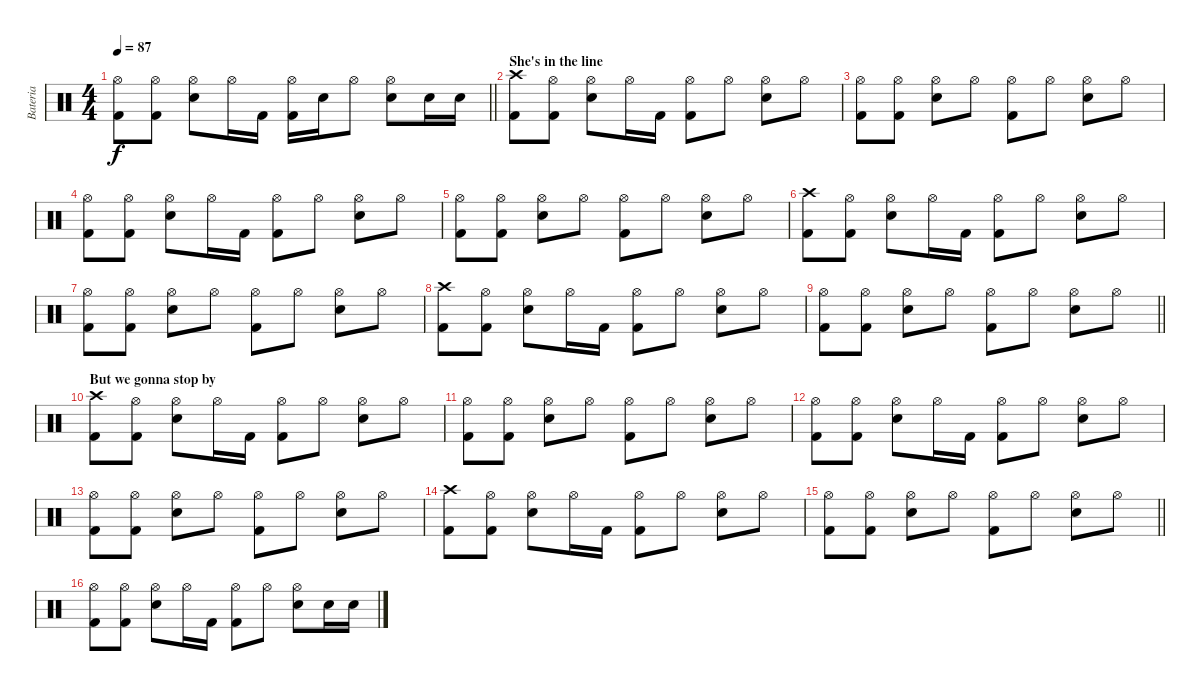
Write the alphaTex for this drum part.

\track ("Bateria" "Bateria") {instrument percussion}
\staff {score}
\articulation defaults
\ts (4 4)
\tempo 87
\clef neutral
\barLineRight lightlight
\ks c
("Hi-Hat (open)" "Kick (hit) 2").8{dy f} ("Hi-Hat (open)" "Kick (hit) 2").8 ("Hi-Hat (open)" "Snare (hit) 2").8 "Hi-Hat (open)".16 "Kick (hit) 2".16 ("Hi-Hat (open)" "Kick (hit) 2").16 "Snare (hit) 2".16 "Hi-Hat (open)".8 ("Hi-Hat (open)" "Snare (hit) 2").8 "Snare (hit) 2".16 "Snare (hit) 2".16 |
\section ("" "She's in the line")
("Crash high (hit)" "Kick (hit) 2").8 ("Hi-Hat (open)" "Kick (hit) 2").8 ("Hi-Hat (open)" "Snare (hit) 2").8 "Hi-Hat (open)".16 "Kick (hit) 2".16 ("Hi-Hat (open)" "Kick (hit) 2").8 "Hi-Hat (open)".8 ("Hi-Hat (open)" "Snare (hit) 2").8 "Hi-Hat (open)".8 |
("Hi-Hat (open)" "Kick (hit) 2").8 ("Hi-Hat (open)" "Kick (hit) 2").8 ("Hi-Hat (open)" "Snare (hit) 2").8 "Hi-Hat (open)".8 ("Hi-Hat (open)" "Kick (hit) 2").8 "Hi-Hat (open)".8 ("Hi-Hat (open)" "Snare (hit) 2").8 "Hi-Hat (open)".8 |
("Hi-Hat (open)" "Kick (hit) 2").8 ("Hi-Hat (open)" "Kick (hit) 2").8 ("Hi-Hat (open)" "Snare (hit) 2").8 "Hi-Hat (open)".16 "Kick (hit) 2".16 ("Hi-Hat (open)" "Kick (hit) 2").8 "Hi-Hat (open)".8 ("Hi-Hat (open)" "Snare (hit) 2").8 "Hi-Hat (open)".8 |
("Hi-Hat (open)" "Kick (hit) 2").8 ("Hi-Hat (open)" "Kick (hit) 2").8 ("Hi-Hat (open)" "Snare (hit) 2").8 "Hi-Hat (open)".8 ("Hi-Hat (open)" "Kick (hit) 2").8 "Hi-Hat (open)".8 ("Hi-Hat (open)" "Snare (hit) 2").8 "Hi-Hat (open)".8 |
("Crash high (hit)" "Kick (hit) 2").8 ("Hi-Hat (open)" "Kick (hit) 2").8 ("Hi-Hat (open)" "Snare (hit) 2").8 "Hi-Hat (open)".16 "Kick (hit) 2".16 ("Hi-Hat (open)" "Kick (hit) 2").8 "Hi-Hat (open)".8 ("Hi-Hat (open)" "Snare (hit) 2").8 "Hi-Hat (open)".8 |
("Hi-Hat (open)" "Kick (hit) 2").8 ("Hi-Hat (open)" "Kick (hit) 2").8 ("Hi-Hat (open)" "Snare (hit) 2").8 "Hi-Hat (open)".8 ("Hi-Hat (open)" "Kick (hit) 2").8 "Hi-Hat (open)".8 ("Hi-Hat (open)" "Snare (hit) 2").8 "Hi-Hat (open)".8 |
("Crash high (hit)" "Kick (hit) 2").8 ("Hi-Hat (open)" "Kick (hit) 2").8 ("Hi-Hat (open)" "Snare (hit) 2").8 "Hi-Hat (open)".16 "Kick (hit) 2".16 ("Hi-Hat (open)" "Kick (hit) 2").8 "Hi-Hat (open)".8 ("Hi-Hat (open)" "Snare (hit) 2").8 "Hi-Hat (open)".8 |
\barLineRight lightlight
("Hi-Hat (open)" "Kick (hit) 2").8 ("Hi-Hat (open)" "Kick (hit) 2").8 ("Hi-Hat (open)" "Snare (hit) 2").8 "Hi-Hat (open)".8 ("Hi-Hat (open)" "Kick (hit) 2").8 "Hi-Hat (open)".8 ("Hi-Hat (open)" "Snare (hit) 2").8 "Hi-Hat (open)".8 |
\section ("" "But we gonna stop by")
("Crash high (hit)" "Kick (hit) 2").8 ("Hi-Hat (open)" "Kick (hit) 2").8 ("Hi-Hat (open)" "Snare (hit) 2").8 "Hi-Hat (open)".16 "Kick (hit) 2".16 ("Hi-Hat (open)" "Kick (hit) 2").8 "Hi-Hat (open)".8 ("Hi-Hat (open)" "Snare (hit) 2").8 "Hi-Hat (open)".8 |
("Hi-Hat (open)" "Kick (hit) 2").8 ("Hi-Hat (open)" "Kick (hit) 2").8 ("Hi-Hat (open)" "Snare (hit) 2").8 "Hi-Hat (open)".8 ("Hi-Hat (open)" "Kick (hit) 2").8 "Hi-Hat (open)".8 ("Hi-Hat (open)" "Snare (hit) 2").8 "Hi-Hat (open)".8 |
("Hi-Hat (open)" "Kick (hit) 2").8 ("Hi-Hat (open)" "Kick (hit) 2").8 ("Hi-Hat (open)" "Snare (hit) 2").8 "Hi-Hat (open)".16 "Kick (hit) 2".16 ("Hi-Hat (open)" "Kick (hit) 2").8 "Hi-Hat (open)".8 ("Hi-Hat (open)" "Snare (hit) 2").8 "Hi-Hat (open)".8 |
("Hi-Hat (open)" "Kick (hit) 2").8 ("Hi-Hat (open)" "Kick (hit) 2").8 ("Hi-Hat (open)" "Snare (hit) 2").8 "Hi-Hat (open)".8 ("Hi-Hat (open)" "Kick (hit) 2").8 "Hi-Hat (open)".8 ("Hi-Hat (open)" "Snare (hit) 2").8 "Hi-Hat (open)".8 |
("Crash high (hit)" "Kick (hit) 2").8 ("Hi-Hat (open)" "Kick (hit) 2").8 ("Hi-Hat (open)" "Snare (hit) 2").8 "Hi-Hat (open)".16 "Kick (hit) 2".16 ("Hi-Hat (open)" "Kick (hit) 2").8 "Hi-Hat (open)".8 ("Hi-Hat (open)" "Snare (hit) 2").8 "Hi-Hat (open)".8 |
\barLineRight lightlight
("Hi-Hat (open)" "Kick (hit) 2").8 ("Hi-Hat (open)" "Kick (hit) 2").8 ("Hi-Hat (open)" "Snare (hit) 2").8 "Hi-Hat (open)".8 ("Hi-Hat (open)" "Kick (hit) 2").8 "Hi-Hat (open)".8 ("Hi-Hat (open)" "Snare (hit) 2").8 "Hi-Hat (open)".8 |
("Hi-Hat (open)" "Kick (hit) 2").8 ("Hi-Hat (open)" "Kick (hit) 2").8 ("Hi-Hat (open)" "Snare (hit) 2").8 "Hi-Hat (open)".16 "Kick (hit) 2".16 ("Hi-Hat (open)" "Kick (hit) 2").8 "Hi-Hat (open)".8 ("Hi-Hat (open)" "Snare (hit) 2").8 "Snare (hit) 2".16 "Snare (hit) 2".16
